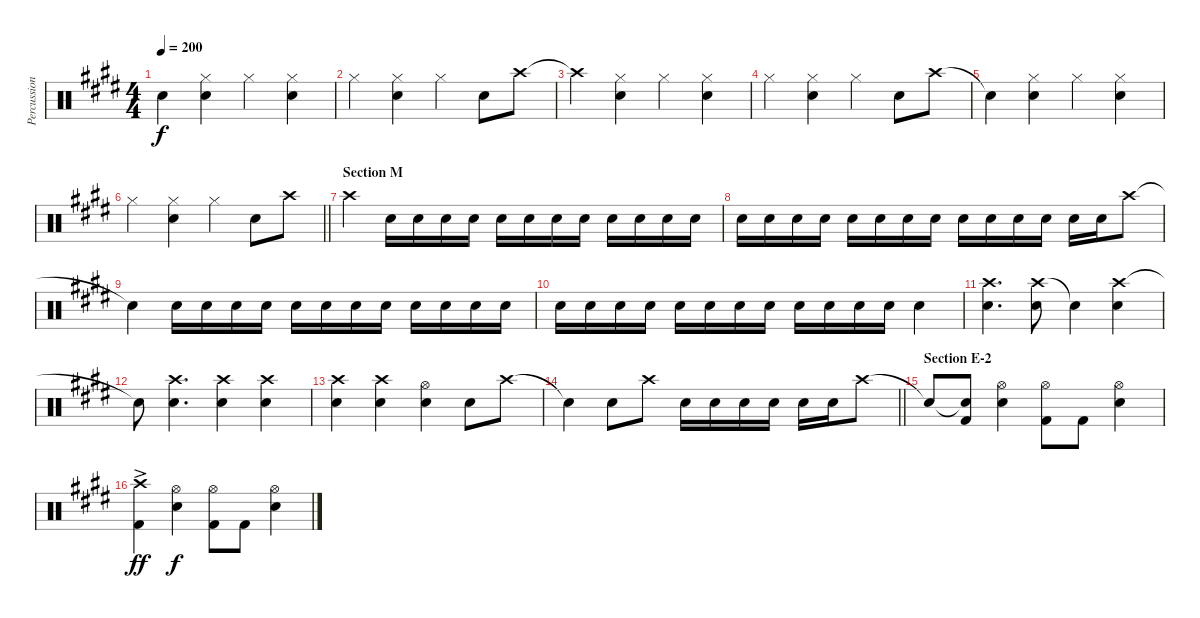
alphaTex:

\track ("Percussion - other" "Percussion") {instrument percussion}
\staff {score}
\articulation defaults
\ts (4 4)
\tempo 200
\clef neutral
\ks e "Snare (hit)"{t}.4{dy f}
("Hi-Hat (closed)" "Snare (hit) 2").4 "Hi-Hat (closed)".4 ("Hi-Hat (closed)" "Snare (hit) 2").4 |
"Hi-Hat (closed)".4 ("Hi-Hat (closed)" "Snare (hit) 2").4 "Hi-Hat (closed)".4 "Snare (hit) 2".8 "Crash high (hit)".8 |
"Crash high (hit)"{t}.4 ("Hi-Hat (closed)" "Snare (hit) 2").4 "Hi-Hat (closed)".4 ("Hi-Hat (closed)" "Snare (hit) 2").4 |
"Hi-Hat (closed)".4 ("Hi-Hat (closed)" "Snare (hit) 2").4 "Hi-Hat (closed)".4 "Snare (hit) 2".8 "Crash high (hit)".8 |
"Snare (hit)"{t}.4 ("Hi-Hat (closed)" "Snare (hit) 2").4 "Hi-Hat (closed)".4 ("Hi-Hat (closed)" "Snare (hit) 2").4 |
\barLineRight lightlight "Hi-Hat (closed)".4
("Hi-Hat (closed)" "Snare (hit) 2").4 "Hi-Hat (closed)".4 "Snare (hit) 2".8 "Crash high (hit)".8 |
\section ("" "Section M")
"Crash high (hit)".4 "Snare (hit) 2".16 "Snare (hit) 2".16 "Snare (hit) 2".16 "Snare (hit) 2".16 "Snare (hit) 2".16 "Snare (hit) 2".16 "Snare (hit) 2".16 "Snare (hit) 2".16 "Snare (hit) 2".16 "Snare (hit) 2".16 "Snare (hit) 2".16 "Snare (hit) 2".16 |
"Snare (hit) 2".16 "Snare (hit) 2".16 "Snare (hit) 2".16 "Snare (hit) 2".16 "Snare (hit) 2".16 "Snare (hit) 2".16 "Snare (hit) 2".16 "Snare (hit) 2".16 "Snare (hit) 2".16 "Snare (hit) 2".16 "Snare (hit) 2".16 "Snare (hit) 2".16 "Snare (hit) 2".16 "Snare (hit) 2".16 "Crash high (hit)".8 |
"Snare (hit)"{t}.4 "Snare (hit) 2".16 "Snare (hit) 2".16 "Snare (hit) 2".16 "Snare (hit) 2".16 "Snare (hit) 2".16 "Snare (hit) 2".16 "Snare (hit) 2".16 "Snare (hit) 2".16 "Snare (hit) 2".16 "Snare (hit) 2".16 "Snare (hit) 2".16 "Snare (hit) 2".16 |
"Snare (hit) 2".16 "Snare (hit) 2".16 "Snare (hit) 2".16 "Snare (hit) 2".16 "Snare (hit) 2".16 "Snare (hit) 2".16 "Snare (hit) 2".16 "Snare (hit) 2".16 "Snare (hit) 2".16 "Snare (hit) 2".16 "Snare (hit) 2".16 "Snare (hit) 2".16 "Snare (hit) 2".4 |
("Crash high (hit)" "Snare (hit) 2").4{d} ("Crash high (hit)" "Snare (hit) 2").8 "Snare (hit)"{t}.4 ("Crash high (hit)" "Snare (hit) 2").4 |
"Snare (hit)"{t}.8 ("Crash high (hit)" "Snare (hit) 2").4{d} ("Crash high (hit)" "Snare (hit) 2").4 ("Crash high (hit)" "Snare (hit) 2").4 |
("Crash high (hit)" "Snare (hit) 2").4 ("Crash high (hit)" "Snare (hit) 2").4 ("Hi-Hat (open)" "Snare (hit) 2").4 "Snare (hit) 2".8 "Crash high (hit)".8 |
\barLineRight lightlight "Snare (hit)"{t}.4 "Snare (hit) 2".8 "Crash high (hit)".8 "Snare (hit) 2".16 "Snare (hit) 2".16 "Snare (hit) 2".16 "Snare (hit) 2".16 "Snare (hit) 2".16 "Snare (hit) 2".16 "Crash high (hit)".8
|
\section ("" "Section E-2")
"Snare (hit)"{t}.8 ("Snare (hit)"{t} "Kick (hit) 2").8 ("Hi-Hat (open)" "Snare (hit) 2").4 ("Hi-Hat (open)" "Kick (hit) 2").8 "Kick (hit) 2".8 ("Hi-Hat (open)" "Snare (hit) 2").4 |
("Crash high (hit)"{ac} "Kick (hit) 2").4{dy ff} ("Hi-Hat (open)" "Snare (hit) 2").4{dy f} ("Hi-Hat (open)" "Kick (hit) 2").8 "Kick (hit) 2".8 ("Hi-Hat (open)" "Snare (hit) 2").4
